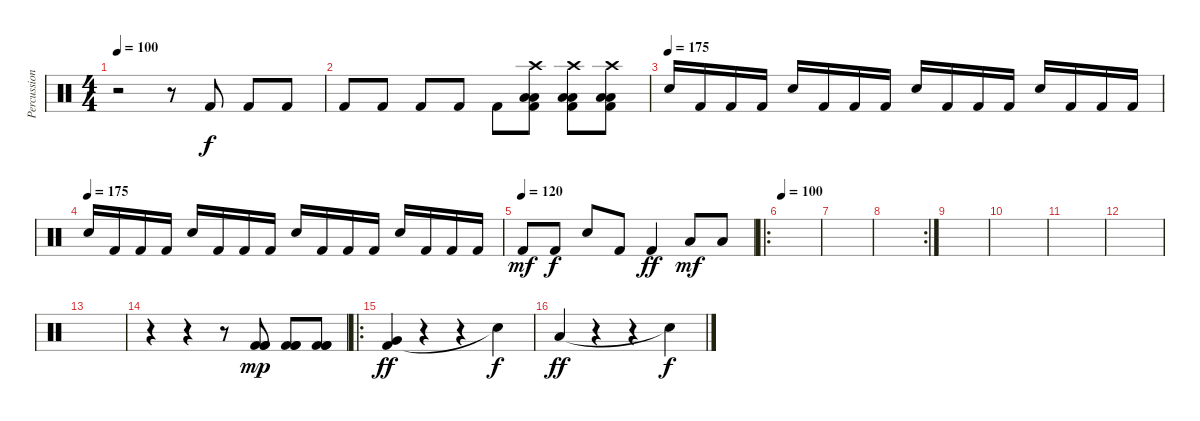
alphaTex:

\track ("Percussions" "Percussion") {instrument percussion}
\staff {score}
\articulation defaults
\ts (4 4)
\tempo 100
\clef neutral
\ks c
r.2{dy f} r.8 "Kick (hit) 2".8 "Kick (hit) 2".8 "Kick (hit) 2".8 |
"Kick (hit) 2".8 "Kick (hit) 2".8 "Kick (hit) 2".8 "Kick (hit) 2".8 "Kick (hit) 2".8 ("Low Tom (hit)" "Low Tom (hit)" "Crash high (hit)" "Kick (hit) 2").8 ("Low Tom (hit)" "Low Tom (hit)" "Crash high (hit)" "Kick (hit) 2").8 ("Low Tom (hit)" "Low Tom (hit)" "Crash high (hit)" "Kick (hit) 2").8 |
\section ("" "")
\tempo (175)
"Electric Snare (hit)".16 "Kick (hit) 2".16 "Kick (hit) 2".16 "Kick (hit) 2".16 "Electric Snare (hit)".16 "Kick (hit) 2".16 "Kick (hit) 2".16 "Kick (hit) 2".16 "Electric Snare (hit)".16 "Kick (hit) 2".16 "Kick (hit) 2".16 "Kick (hit) 2".16 "Electric Snare (hit)".16 "Kick (hit) 2".16 "Kick (hit) 2".16 "Kick (hit) 2".16 |
\tempo (175)
"Electric Snare (hit)".16 "Kick (hit) 2".16 "Kick (hit) 2".16 "Kick (hit) 2".16 "Electric Snare (hit)".16 "Kick (hit) 2".16 "Kick (hit) 2".16 "Kick (hit) 2".16 "Electric Snare (hit)".16 "Kick (hit) 2".16 "Kick (hit) 2".16 "Kick (hit) 2".16 "Electric Snare (hit)".16 "Kick (hit) 2".16 "Kick (hit) 2".16 "Kick (hit) 2".16 |
\tempo (120)
"Kick (hit) 2".8{dy mf} "Kick (hit) 2".8{dy f} "Electric Snare (hit)".8 "Kick (hit) 2".8 "Kick (hit) 2".4{dy ff} "Low Floor Tom (hit)".8{dy mf} "Low Floor Tom (hit)".8 |
\ro
\section ("" "")
\tempo 100
|
|
\rc 2
|
|
|
|
|
|
r.4 r.4 r.8 ("Kick (hit) 2" "Kick (hit) 2" "Kick (hit) 2").8{dy mp} ("Kick (hit) 2" "Kick (hit) 2" "Kick (hit) 2").8 ("Kick (hit) 2" "Kick (hit) 2" "Kick (hit) 2").8 |
\ro
\section ("" "")
("Kick (hit) 2" "Very Low Tom (hit)").4{dy ff} r.4 r.4 "Snare (hit)"{t}.4{dy f} |
"Low Floor Tom (hit)".4{dy ff} r.4 r.4 "Snare (hit)"{t}.4{dy f}
